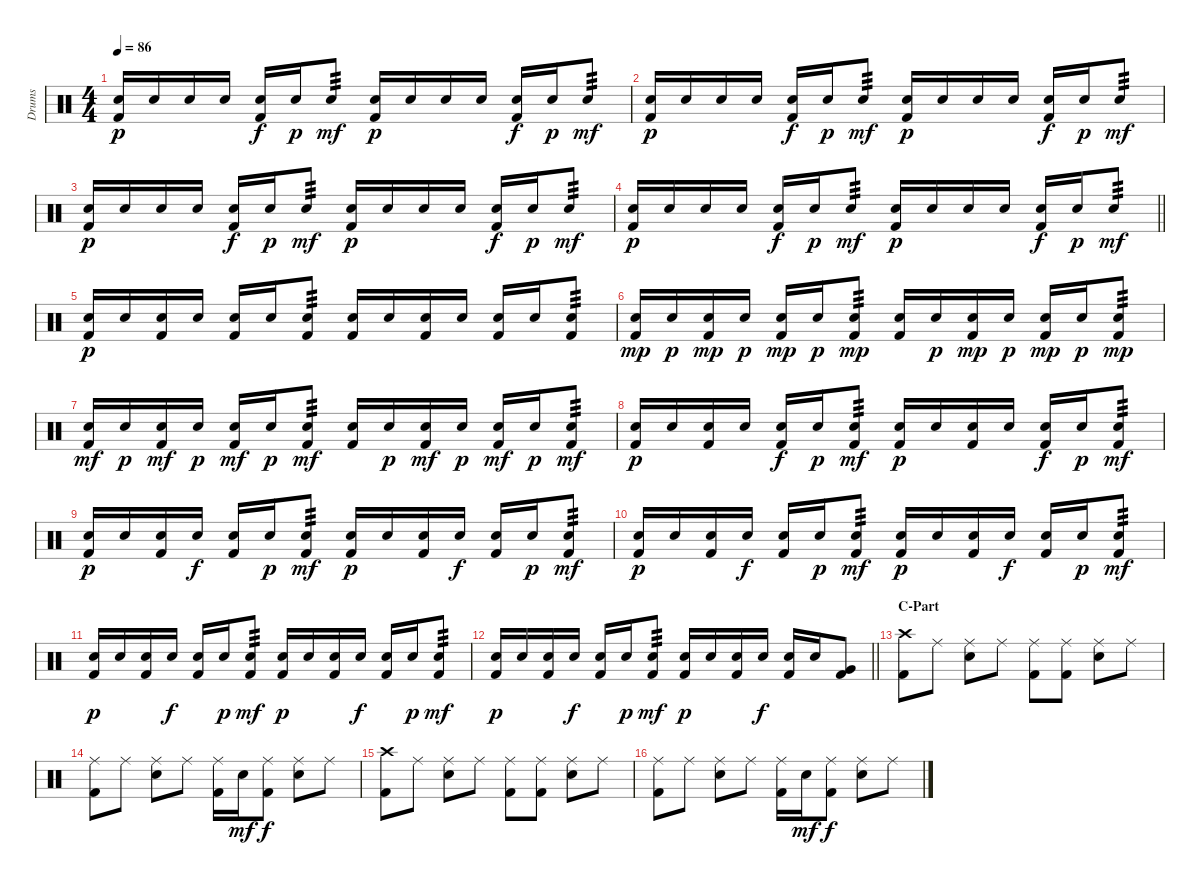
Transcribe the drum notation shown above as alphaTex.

\track ("Drums" "Drums") {instrument percussion}
\staff {score}
\articulation defaults
\ts (4 4)
\tempo 86
\clef neutral
\ks c
("Snare (hit) 2" "Kick (hit) 2").16{dy p} "Snare (hit) 2".16 "Snare (hit) 2".16 "Snare (hit) 2".16 ("Snare (hit) 2" "Kick (hit) 2").16{dy f} "Snare (hit) 2".16{dy p} "Snare (hit) 2".8{tp 3 dy mf} ("Snare (hit) 2" "Kick (hit) 2").16{dy p} "Snare (hit) 2".16 "Snare (hit) 2".16 "Snare (hit) 2".16 ("Snare (hit) 2" "Kick (hit) 2").16{dy f} "Snare (hit) 2".16{dy p} "Snare (hit) 2".8{tp 3 dy mf} |
("Snare (hit) 2" "Kick (hit) 2").16{dy p} "Snare (hit) 2".16 "Snare (hit) 2".16 "Snare (hit) 2".16 ("Snare (hit) 2" "Kick (hit) 2").16{dy f} "Snare (hit) 2".16{dy p} "Snare (hit) 2".8{tp 3 dy mf} ("Snare (hit) 2" "Kick (hit) 2").16{dy p} "Snare (hit) 2".16 "Snare (hit) 2".16 "Snare (hit) 2".16 ("Snare (hit) 2" "Kick (hit) 2").16{dy f} "Snare (hit) 2".16{dy p} "Snare (hit) 2".8{tp 3 dy mf} |
("Snare (hit) 2" "Kick (hit) 2").16{dy p} "Snare (hit) 2".16 "Snare (hit) 2".16 "Snare (hit) 2".16 ("Snare (hit) 2" "Kick (hit) 2").16{dy f} "Snare (hit) 2".16{dy p} "Snare (hit) 2".8{tp 3 dy mf} ("Snare (hit) 2" "Kick (hit) 2").16{dy p} "Snare (hit) 2".16 "Snare (hit) 2".16 "Snare (hit) 2".16 ("Snare (hit) 2" "Kick (hit) 2").16{dy f} "Snare (hit) 2".16{dy p} "Snare (hit) 2".8{tp 3 dy mf} |
\barLineRight lightlight
("Snare (hit) 2" "Kick (hit) 2").16{dy p} "Snare (hit) 2".16 "Snare (hit) 2".16 "Snare (hit) 2".16 ("Snare (hit) 2" "Kick (hit) 2").16{dy f} "Snare (hit) 2".16{dy p} "Snare (hit) 2".8{tp 3 dy mf} ("Snare (hit) 2" "Kick (hit) 2").16{dy p} "Snare (hit) 2".16 "Snare (hit) 2".16 "Snare (hit) 2".16 ("Snare (hit) 2" "Kick (hit) 2").16{dy f} "Snare (hit) 2".16{dy p} "Snare (hit) 2".8{tp 3 dy mf} |
("Snare (hit) 2" "Kick (hit) 2").16{dy p} "Snare (hit) 2".16 ("Snare (hit) 2" "Kick (hit) 2").16 "Snare (hit) 2".16 ("Snare (hit) 2" "Kick (hit) 2").16 "Snare (hit) 2".16 ("Snare (hit) 2" "Kick (hit) 2").8{tp 3} ("Snare (hit) 2" "Kick (hit) 2").16 "Snare (hit) 2".16 ("Snare (hit) 2" "Kick (hit) 2").16 "Snare (hit) 2".16 ("Snare (hit) 2" "Kick (hit) 2").16 "Snare (hit) 2".16 ("Snare (hit) 2" "Kick (hit) 2").8{tp 3} |
("Snare (hit) 2" "Kick (hit) 2").16{dy mp} "Snare (hit) 2".16{dy p} ("Snare (hit) 2" "Kick (hit) 2").16{dy mp} "Snare (hit) 2".16{dy p} ("Snare (hit) 2" "Kick (hit) 2").16{dy mp} "Snare (hit) 2".16{dy p} ("Snare (hit) 2" "Kick (hit) 2").8{tp 3 dy mp} ("Snare (hit) 2" "Kick (hit) 2").16 "Snare (hit) 2".16{dy p} ("Snare (hit) 2" "Kick (hit) 2").16{dy mp} "Snare (hit) 2".16{dy p} ("Snare (hit) 2" "Kick (hit) 2").16{dy mp} "Snare (hit) 2".16{dy p} ("Snare (hit) 2" "Kick (hit) 2").8{tp 3 dy mp} |
("Snare (hit) 2" "Kick (hit) 2").16{dy mf} "Snare (hit) 2".16{dy p} ("Snare (hit) 2" "Kick (hit) 2").16{dy mf} "Snare (hit) 2".16{dy p} ("Snare (hit) 2" "Kick (hit) 2").16{dy mf} "Snare (hit) 2".16{dy p} ("Snare (hit) 2" "Kick (hit) 2").8{tp 3 dy mf} ("Snare (hit) 2" "Kick (hit) 2").16 "Snare (hit) 2".16{dy p} ("Snare (hit) 2" "Kick (hit) 2").16{dy mf} "Snare (hit) 2".16{dy p} ("Snare (hit) 2" "Kick (hit) 2").16{dy mf} "Snare (hit) 2".16{dy p} ("Snare (hit) 2" "Kick (hit) 2").8{tp 3 dy mf} |
("Snare (hit) 2" "Kick (hit) 2").16{dy p} "Snare (hit) 2".16 ("Snare (hit) 2" "Kick (hit) 2").16 "Snare (hit) 2".16 ("Snare (hit) 2" "Kick (hit) 2").16{dy f} "Snare (hit) 2".16{dy p} ("Snare (hit) 2" "Kick (hit) 2").8{tp 3 dy mf} ("Snare (hit) 2" "Kick (hit) 2").16{dy p} "Snare (hit) 2".16 ("Snare (hit) 2" "Kick (hit) 2").16 "Snare (hit) 2".16 ("Snare (hit) 2" "Kick (hit) 2").16{dy f} "Snare (hit) 2".16{dy p} ("Snare (hit) 2" "Kick (hit) 2").8{tp 3 dy mf} |
("Snare (hit) 2" "Kick (hit) 2").16{dy p} "Snare (hit) 2".16 ("Snare (hit) 2" "Kick (hit) 2").16 "Snare (hit) 2".16{dy f} ("Snare (hit) 2" "Kick (hit) 2").16 "Snare (hit) 2".16{dy p} ("Snare (hit) 2" "Kick (hit) 2").8{tp 3 dy mf} ("Snare (hit) 2" "Kick (hit) 2").16{dy p} "Snare (hit) 2".16 ("Snare (hit) 2" "Kick (hit) 2").16 "Snare (hit) 2".16{dy f} ("Snare (hit) 2" "Kick (hit) 2").16 "Snare (hit) 2".16{dy p} ("Snare (hit) 2" "Kick (hit) 2").8{tp 3 dy mf} |
("Snare (hit) 2" "Kick (hit) 2").16{dy p} "Snare (hit) 2".16 ("Snare (hit) 2" "Kick (hit) 2").16 "Snare (hit) 2".16{dy f} ("Snare (hit) 2" "Kick (hit) 2").16 "Snare (hit) 2".16{dy p} ("Snare (hit) 2" "Kick (hit) 2").8{tp 3 dy mf} ("Snare (hit) 2" "Kick (hit) 2").16{dy p} "Snare (hit) 2".16 ("Snare (hit) 2" "Kick (hit) 2").16 "Snare (hit) 2".16{dy f} ("Snare (hit) 2" "Kick (hit) 2").16 "Snare (hit) 2".16{dy p} ("Snare (hit) 2" "Kick (hit) 2").8{tp 3 dy mf} |
("Snare (hit) 2" "Kick (hit) 2").16{dy p} "Snare (hit) 2".16 ("Snare (hit) 2" "Kick (hit) 2").16 "Snare (hit) 2".16{dy f} ("Snare (hit) 2" "Kick (hit) 2").16 "Snare (hit) 2".16{dy p} ("Snare (hit) 2" "Kick (hit) 2").8{tp 3 dy mf} ("Snare (hit) 2" "Kick (hit) 2").16{dy p} "Snare (hit) 2".16 ("Snare (hit) 2" "Kick (hit) 2").16 "Snare (hit) 2".16{dy f} ("Snare (hit) 2" "Kick (hit) 2").16 "Snare (hit) 2".16{dy p} ("Snare (hit) 2" "Kick (hit) 2").8{tp 3 dy mf} |
\barLineRight lightlight
("Snare (hit) 2" "Kick (hit) 2").16{dy p} "Snare (hit) 2".16 ("Snare (hit) 2" "Kick (hit) 2").16 "Snare (hit) 2".16{dy f} ("Snare (hit) 2" "Kick (hit) 2").16 "Snare (hit) 2".16{dy p} ("Snare (hit) 2" "Kick (hit) 2").8{tp 3 dy mf} ("Snare (hit) 2" "Kick (hit) 2").16{dy p} "Snare (hit) 2".16 ("Snare (hit) 2" "Kick (hit) 2").16 "Snare (hit) 2".16{dy f} ("Snare (hit) 2" "Kick (hit) 2").16 "Snare (hit) 2".16 ("Very Low Tom (hit)" "Kick (hit) 2").8 |
\section ("" "C-Part")
("Crash high (hit)" "Kick (hit) 2").8 "Ride (middle)".8 ("Ride (middle)" "Snare (hit) 2").8 "Ride (middle)".8 ("Ride (middle)" "Kick (hit) 2").8 ("Ride (middle)" "Kick (hit) 2").8 ("Ride (middle)" "Snare (hit) 2").8 "Ride (middle)".8 |
("Ride (middle)" "Kick (hit) 2").8 "Ride (middle)".8 ("Ride (middle)" "Snare (hit) 2").8 "Ride (middle)".8 ("Ride (middle)" "Kick (hit) 2").16 "Snare (hit) 2".16{dy mf} ("Ride (middle)" "Kick (hit) 2").8{dy f} ("Ride (middle)" "Snare (hit) 2").8 "Ride (middle)".8 |
("Crash high (hit)" "Kick (hit) 2").8 "Ride (middle)".8 ("Ride (middle)" "Snare (hit) 2").8 "Ride (middle)".8 ("Ride (middle)" "Kick (hit) 2").8 ("Ride (middle)" "Kick (hit) 2").8 ("Ride (middle)" "Snare (hit) 2").8 "Ride (middle)".8 |
("Ride (middle)" "Kick (hit) 2").8 "Ride (middle)".8 ("Ride (middle)" "Snare (hit) 2").8 "Ride (middle)".8 ("Ride (middle)" "Kick (hit) 2").16 "Snare (hit) 2".16{dy mf} ("Ride (middle)" "Kick (hit) 2").8{dy f} ("Ride (middle)" "Snare (hit) 2").8 "Ride (middle)".8
